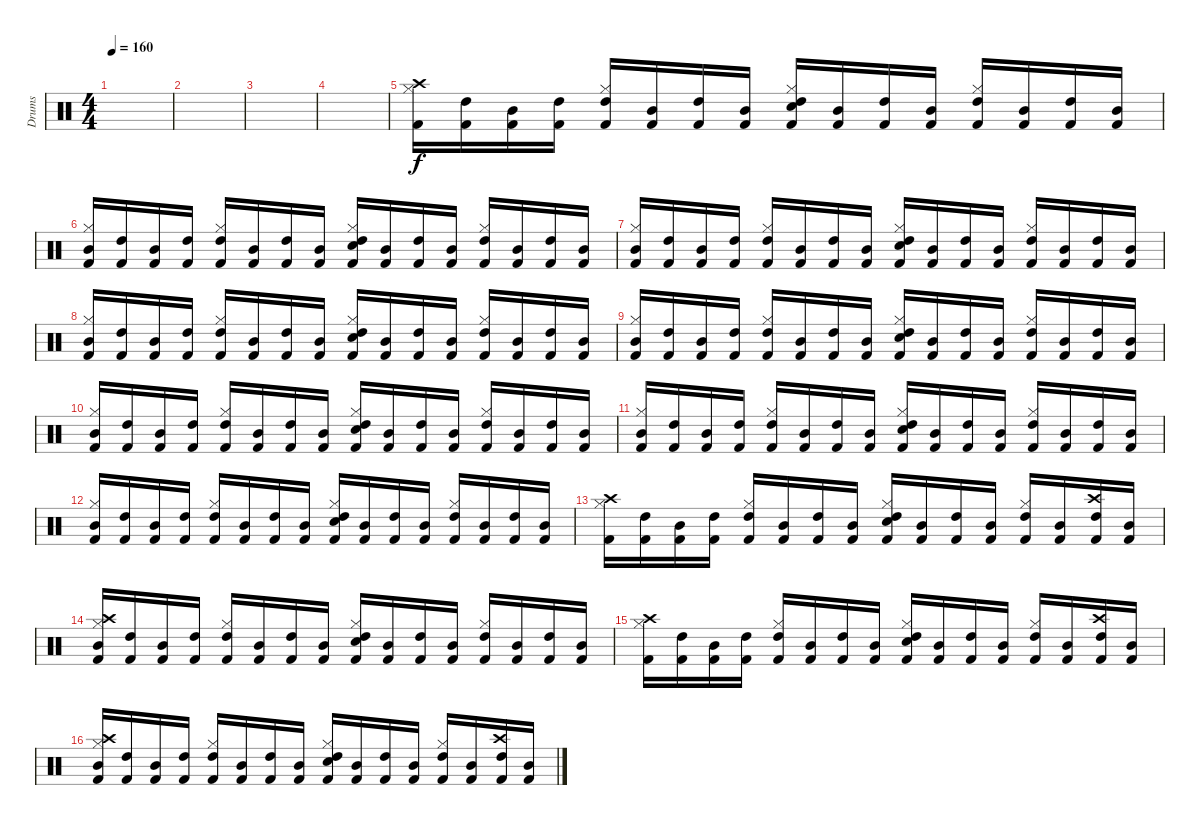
\track ("Drums" "Drums") {instrument percussion}
\staff {score}
\articulation defaults
\ts (4 4)
\tempo 160
\clef neutral
\ks c
|
|
|
|
("Kick (hit) 2" "Hi-Hat (closed)" "Crash high (hit)").16 ("Kick (hit) 2" "High Tom (hit)").16 ("Kick (hit) 2" "Mid Tom (hit)").16 ("Kick (hit) 2" "High Tom (hit)").16 ("Kick (hit) 2" "Hi-Hat (closed)" "High Tom (hit)").16 ("Kick (hit) 2" "Mid Tom (hit)").16 ("Kick (hit) 2" "High Tom (hit)").16 ("Kick (hit) 2" "Mid Tom (hit)").16 ("Kick (hit) 2" "Hi-Hat (closed)" "Electric Snare (hit)" "High Tom (hit)").16 ("Kick (hit) 2" "Mid Tom (hit)").16 ("Kick (hit) 2" "High Tom (hit)").16 ("Kick (hit) 2" "Mid Tom (hit)").16 ("Kick (hit) 2" "Hi-Hat (closed)" "High Tom (hit)").16 ("Kick (hit) 2" "Mid Tom (hit)").16 ("Kick (hit) 2" "High Tom (hit)").16 ("Kick (hit) 2" "Mid Tom (hit)").16 |
("Kick (hit) 2" "Hi-Hat (closed)" "Mid Tom (hit)").16 ("Kick (hit) 2" "High Tom (hit)").16 ("Kick (hit) 2" "Mid Tom (hit)").16 ("Kick (hit) 2" "High Tom (hit)").16 ("Kick (hit) 2" "Hi-Hat (closed)" "High Tom (hit)").16 ("Kick (hit) 2" "Mid Tom (hit)").16 ("Kick (hit) 2" "High Tom (hit)").16 ("Kick (hit) 2" "Mid Tom (hit)").16 ("Kick (hit) 2" "Hi-Hat (closed)" "Electric Snare (hit)" "High Tom (hit)").16 ("Kick (hit) 2" "Mid Tom (hit)").16 ("Kick (hit) 2" "High Tom (hit)").16 ("Kick (hit) 2" "Mid Tom (hit)").16 ("Kick (hit) 2" "Hi-Hat (closed)" "High Tom (hit)").16 ("Kick (hit) 2" "Mid Tom (hit)").16 ("Kick (hit) 2" "High Tom (hit)").16 ("Kick (hit) 2" "Mid Tom (hit)").16 |
("Kick (hit) 2" "Hi-Hat (closed)" "Mid Tom (hit)").16 ("Kick (hit) 2" "High Tom (hit)").16 ("Kick (hit) 2" "Mid Tom (hit)").16 ("Kick (hit) 2" "High Tom (hit)").16 ("Kick (hit) 2" "Hi-Hat (closed)" "High Tom (hit)").16 ("Kick (hit) 2" "Mid Tom (hit)").16 ("Kick (hit) 2" "High Tom (hit)").16 ("Kick (hit) 2" "Mid Tom (hit)").16 ("Kick (hit) 2" "Hi-Hat (closed)" "Electric Snare (hit)" "High Tom (hit)").16 ("Kick (hit) 2" "Mid Tom (hit)").16 ("Kick (hit) 2" "High Tom (hit)").16 ("Kick (hit) 2" "Mid Tom (hit)").16 ("Kick (hit) 2" "Hi-Hat (closed)" "High Tom (hit)").16 ("Kick (hit) 2" "Mid Tom (hit)").16 ("Kick (hit) 2" "High Tom (hit)").16 ("Kick (hit) 2" "Mid Tom (hit)").16 |
("Kick (hit) 2" "Hi-Hat (closed)" "Mid Tom (hit)").16 ("Kick (hit) 2" "High Tom (hit)").16 ("Kick (hit) 2" "Mid Tom (hit)").16 ("Kick (hit) 2" "High Tom (hit)").16 ("Kick (hit) 2" "Hi-Hat (closed)" "High Tom (hit)").16 ("Kick (hit) 2" "Mid Tom (hit)").16 ("Kick (hit) 2" "High Tom (hit)").16 ("Kick (hit) 2" "Mid Tom (hit)").16 ("Kick (hit) 2" "Hi-Hat (closed)" "Electric Snare (hit)" "High Tom (hit)").16 ("Kick (hit) 2" "Mid Tom (hit)").16 ("Kick (hit) 2" "High Tom (hit)").16 ("Kick (hit) 2" "Mid Tom (hit)").16 ("Kick (hit) 2" "Hi-Hat (closed)" "High Tom (hit)").16 ("Kick (hit) 2" "Mid Tom (hit)").16 ("Kick (hit) 2" "High Tom (hit)").16 ("Kick (hit) 2" "Mid Tom (hit)").16 |
("Kick (hit) 2" "Hi-Hat (closed)" "Mid Tom (hit)").16 ("Kick (hit) 2" "High Tom (hit)").16 ("Kick (hit) 2" "Mid Tom (hit)").16 ("Kick (hit) 2" "High Tom (hit)").16 ("Kick (hit) 2" "Hi-Hat (closed)" "High Tom (hit)").16 ("Kick (hit) 2" "Mid Tom (hit)").16 ("Kick (hit) 2" "High Tom (hit)").16 ("Kick (hit) 2" "Mid Tom (hit)").16 ("Kick (hit) 2" "Hi-Hat (closed)" "Electric Snare (hit)" "High Tom (hit)").16 ("Kick (hit) 2" "Mid Tom (hit)").16 ("Kick (hit) 2" "High Tom (hit)").16 ("Kick (hit) 2" "Mid Tom (hit)").16 ("Kick (hit) 2" "Hi-Hat (closed)" "High Tom (hit)").16 ("Kick (hit) 2" "Mid Tom (hit)").16 ("Kick (hit) 2" "High Tom (hit)").16 ("Kick (hit) 2" "Mid Tom (hit)").16 |
("Kick (hit) 2" "Hi-Hat (closed)" "Mid Tom (hit)").16 ("Kick (hit) 2" "High Tom (hit)").16 ("Kick (hit) 2" "Mid Tom (hit)").16 ("Kick (hit) 2" "High Tom (hit)").16 ("Kick (hit) 2" "Hi-Hat (closed)" "High Tom (hit)").16 ("Kick (hit) 2" "Mid Tom (hit)").16 ("Kick (hit) 2" "High Tom (hit)").16 ("Kick (hit) 2" "Mid Tom (hit)").16 ("Kick (hit) 2" "Hi-Hat (closed)" "Electric Snare (hit)" "High Tom (hit)").16 ("Kick (hit) 2" "Mid Tom (hit)").16 ("Kick (hit) 2" "High Tom (hit)").16 ("Kick (hit) 2" "Mid Tom (hit)").16 ("Kick (hit) 2" "Hi-Hat (closed)" "High Tom (hit)").16 ("Kick (hit) 2" "Mid Tom (hit)").16 ("Kick (hit) 2" "High Tom (hit)").16 ("Kick (hit) 2" "Mid Tom (hit)").16 |
("Kick (hit) 2" "Hi-Hat (closed)" "Mid Tom (hit)").16 ("Kick (hit) 2" "High Tom (hit)").16 ("Kick (hit) 2" "Mid Tom (hit)").16 ("Kick (hit) 2" "High Tom (hit)").16 ("Kick (hit) 2" "Hi-Hat (closed)" "High Tom (hit)").16 ("Kick (hit) 2" "Mid Tom (hit)").16 ("Kick (hit) 2" "High Tom (hit)").16 ("Kick (hit) 2" "Mid Tom (hit)").16 ("Kick (hit) 2" "Hi-Hat (closed)" "Electric Snare (hit)" "High Tom (hit)").16 ("Kick (hit) 2" "Mid Tom (hit)").16 ("Kick (hit) 2" "High Tom (hit)").16 ("Kick (hit) 2" "Mid Tom (hit)").16 ("Kick (hit) 2" "Hi-Hat (closed)" "High Tom (hit)").16 ("Kick (hit) 2" "Mid Tom (hit)").16 ("Kick (hit) 2" "High Tom (hit)").16 ("Kick (hit) 2" "Mid Tom (hit)").16 |
("Kick (hit) 2" "Hi-Hat (closed)" "Mid Tom (hit)").16 ("Kick (hit) 2" "High Tom (hit)").16 ("Kick (hit) 2" "Mid Tom (hit)").16 ("Kick (hit) 2" "High Tom (hit)").16 ("Kick (hit) 2" "Hi-Hat (closed)" "High Tom (hit)").16 ("Kick (hit) 2" "Mid Tom (hit)").16 ("Kick (hit) 2" "High Tom (hit)").16 ("Kick (hit) 2" "Mid Tom (hit)").16 ("Kick (hit) 2" "Hi-Hat (closed)" "Electric Snare (hit)" "High Tom (hit)").16 ("Kick (hit) 2" "Mid Tom (hit)").16 ("Kick (hit) 2" "High Tom (hit)").16 ("Kick (hit) 2" "Mid Tom (hit)").16 ("Kick (hit) 2" "Hi-Hat (closed)" "High Tom (hit)").16 ("Kick (hit) 2" "Mid Tom (hit)").16 ("Kick (hit) 2" "High Tom (hit)").16 ("Kick (hit) 2" "Mid Tom (hit)").16 |
("Kick (hit) 2" "Hi-Hat (closed)" "Crash high (hit)").16 ("Kick (hit) 2" "High Tom (hit)").16 ("Kick (hit) 2" "Mid Tom (hit)").16 ("Kick (hit) 2" "High Tom (hit)").16 ("Kick (hit) 2" "Hi-Hat (closed)" "High Tom (hit)").16 ("Kick (hit) 2" "Mid Tom (hit)").16 ("Kick (hit) 2" "High Tom (hit)").16 ("Kick (hit) 2" "Mid Tom (hit)").16 ("Kick (hit) 2" "Hi-Hat (closed)" "Electric Snare (hit)" "High Tom (hit)").16 ("Kick (hit) 2" "Mid Tom (hit)").16 ("Kick (hit) 2" "High Tom (hit)").16 ("Kick (hit) 2" "Mid Tom (hit)").16 ("Kick (hit) 2" "Hi-Hat (closed)" "High Tom (hit)").16 ("Kick (hit) 2" "Mid Tom (hit)").16 ("Kick (hit) 2" "High Tom (hit)" "Crash high (hit)").16 ("Kick (hit) 2" "Mid Tom (hit)").16 |
("Kick (hit) 2" "Hi-Hat (closed)" "Mid Tom (hit)" "Crash high (hit)").16 ("Kick (hit) 2" "High Tom (hit)").16 ("Kick (hit) 2" "Mid Tom (hit)").16 ("Kick (hit) 2" "High Tom (hit)").16 ("Kick (hit) 2" "Hi-Hat (closed)" "High Tom (hit)").16 ("Kick (hit) 2" "Mid Tom (hit)").16 ("Kick (hit) 2" "High Tom (hit)").16 ("Kick (hit) 2" "Mid Tom (hit)").16 ("Kick (hit) 2" "Hi-Hat (closed)" "Electric Snare (hit)" "High Tom (hit)").16 ("Kick (hit) 2" "Mid Tom (hit)").16 ("Kick (hit) 2" "High Tom (hit)").16 ("Kick (hit) 2" "Mid Tom (hit)").16 ("Kick (hit) 2" "Hi-Hat (closed)" "High Tom (hit)").16 ("Kick (hit) 2" "Mid Tom (hit)").16 ("Kick (hit) 2" "High Tom (hit)").16 ("Kick (hit) 2" "Mid Tom (hit)").16 |
("Kick (hit) 2" "Hi-Hat (closed)" "Crash high (hit)").16 ("Kick (hit) 2" "High Tom (hit)").16 ("Kick (hit) 2" "Mid Tom (hit)").16 ("Kick (hit) 2" "High Tom (hit)").16 ("Kick (hit) 2" "Hi-Hat (closed)" "High Tom (hit)").16 ("Kick (hit) 2" "Mid Tom (hit)").16 ("Kick (hit) 2" "High Tom (hit)").16 ("Kick (hit) 2" "Mid Tom (hit)").16 ("Kick (hit) 2" "Hi-Hat (closed)" "Electric Snare (hit)" "High Tom (hit)").16 ("Kick (hit) 2" "Mid Tom (hit)").16 ("Kick (hit) 2" "High Tom (hit)").16 ("Kick (hit) 2" "Mid Tom (hit)").16 ("Kick (hit) 2" "Hi-Hat (closed)" "High Tom (hit)").16 ("Kick (hit) 2" "Mid Tom (hit)").16 ("Kick (hit) 2" "High Tom (hit)" "Crash high (hit)").16 ("Kick (hit) 2" "Mid Tom (hit)").16 |
("Kick (hit) 2" "Hi-Hat (closed)" "Mid Tom (hit)" "Crash high (hit)").16 ("Kick (hit) 2" "High Tom (hit)").16 ("Kick (hit) 2" "Mid Tom (hit)").16 ("Kick (hit) 2" "High Tom (hit)").16 ("Kick (hit) 2" "Hi-Hat (closed)" "High Tom (hit)").16 ("Kick (hit) 2" "Mid Tom (hit)").16 ("Kick (hit) 2" "High Tom (hit)").16 ("Kick (hit) 2" "Mid Tom (hit)").16 ("Kick (hit) 2" "Hi-Hat (closed)" "Electric Snare (hit)" "High Tom (hit)").16 ("Kick (hit) 2" "Mid Tom (hit)").16 ("Kick (hit) 2" "High Tom (hit)").16 ("Kick (hit) 2" "Mid Tom (hit)").16 ("Kick (hit) 2" "Hi-Hat (closed)" "High Tom (hit)").16 ("Kick (hit) 2" "Mid Tom (hit)").16 ("Kick (hit) 2" "High Tom (hit)" "Crash high (hit)").16 ("Kick (hit) 2" "Mid Tom (hit)").16
